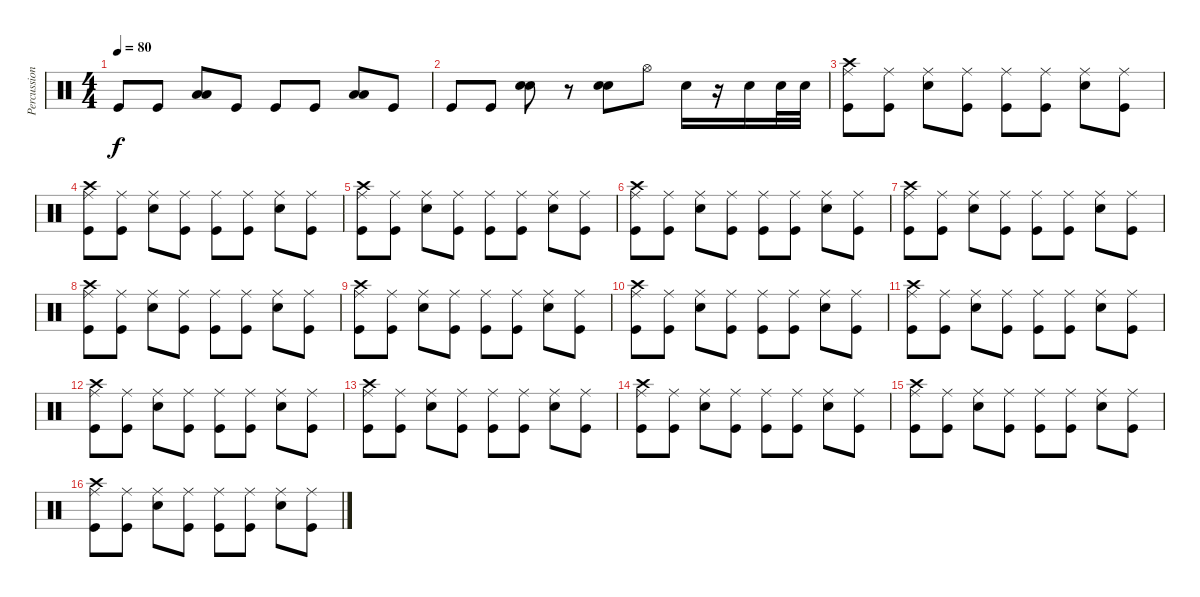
\track ("Percussions" "Percussion") {instrument percussion}
\staff {score}
\articulation defaults
\ts (4 4)
\tempo 80
\clef neutral
\ks c "Kick (hit)".8{dy f} "Kick (hit)".8
("Low Tom (hit)" "Low Floor Tom (hit)").8 "Kick (hit)".8 "Kick (hit)".8 "Kick (hit)".8 ("Low Tom (hit)" "Low Floor Tom (hit)").8 "Kick (hit)".8 |
"Kick (hit)".8 "Kick (hit)".8 ("Electric Snare (hit)" "Snare (hit) 2").8{bu 120} r.8 ("Electric Snare (hit)" "Snare (hit) 2").8{bu 120} "Hi-Hat (open)".8 "Electric Snare (hit)".16 r.16 "Electric Snare (hit)".16 "Electric Snare (hit)".32 "Electric Snare (hit)".32 |
("Ride (middle)" "Crash high (hit)" "Kick (hit)").8 ("Ride (middle)" "Kick (hit)").8 ("Ride (middle)" "Electric Snare (hit)").8 ("Ride (middle)" "Kick (hit)").8 ("Ride (middle)" "Kick (hit)").8 ("Ride (middle)" "Kick (hit)").8 ("Ride (middle)" "Electric Snare (hit)").8 ("Ride (middle)" "Kick (hit)").8 |
("Ride (middle)" "Crash high (hit)" "Kick (hit)").8 ("Ride (middle)" "Kick (hit)").8 ("Ride (middle)" "Electric Snare (hit)").8 ("Ride (middle)" "Kick (hit)").8 ("Ride (middle)" "Kick (hit)").8 ("Ride (middle)" "Kick (hit)").8 ("Ride (middle)" "Electric Snare (hit)").8 ("Ride (middle)" "Kick (hit)").8 |
("Ride (middle)" "Crash high (hit)" "Kick (hit)").8 ("Ride (middle)" "Kick (hit)").8 ("Ride (middle)" "Electric Snare (hit)").8 ("Ride (middle)" "Kick (hit)").8 ("Ride (middle)" "Kick (hit)").8 ("Ride (middle)" "Kick (hit)").8 ("Ride (middle)" "Electric Snare (hit)").8 ("Ride (middle)" "Kick (hit)").8 |
("Ride (middle)" "Crash high (hit)" "Kick (hit)").8 ("Ride (middle)" "Kick (hit)").8 ("Ride (middle)" "Electric Snare (hit)").8 ("Ride (middle)" "Kick (hit)").8 ("Ride (middle)" "Kick (hit)").8 ("Ride (middle)" "Kick (hit)").8 ("Ride (middle)" "Electric Snare (hit)").8 ("Ride (middle)" "Kick (hit)").8 |
("Ride (middle)" "Crash high (hit)" "Kick (hit)").8 ("Ride (middle)" "Kick (hit)").8 ("Ride (middle)" "Electric Snare (hit)").8 ("Ride (middle)" "Kick (hit)").8 ("Ride (middle)" "Kick (hit)").8 ("Ride (middle)" "Kick (hit)").8 ("Ride (middle)" "Electric Snare (hit)").8 ("Ride (middle)" "Kick (hit)").8 |
("Ride (middle)" "Crash high (hit)" "Kick (hit)").8 ("Ride (middle)" "Kick (hit)").8 ("Ride (middle)" "Electric Snare (hit)").8 ("Ride (middle)" "Kick (hit)").8 ("Ride (middle)" "Kick (hit)").8 ("Ride (middle)" "Kick (hit)").8 ("Ride (middle)" "Electric Snare (hit)").8 ("Ride (middle)" "Kick (hit)").8 |
("Ride (middle)" "Crash high (hit)" "Kick (hit)").8 ("Ride (middle)" "Kick (hit)").8 ("Ride (middle)" "Electric Snare (hit)").8 ("Ride (middle)" "Kick (hit)").8 ("Ride (middle)" "Kick (hit)").8 ("Ride (middle)" "Kick (hit)").8 ("Ride (middle)" "Electric Snare (hit)").8 ("Ride (middle)" "Kick (hit)").8 |
("Ride (middle)" "Crash high (hit)" "Kick (hit)").8 ("Ride (middle)" "Kick (hit)").8 ("Ride (middle)" "Electric Snare (hit)").8 ("Ride (middle)" "Kick (hit)").8 ("Ride (middle)" "Kick (hit)").8 ("Ride (middle)" "Kick (hit)").8 ("Ride (middle)" "Electric Snare (hit)").8 ("Ride (middle)" "Kick (hit)").8 |
("Ride (middle)" "Crash high (hit)" "Kick (hit)").8 ("Ride (middle)" "Kick (hit)").8 ("Ride (middle)" "Electric Snare (hit)").8 ("Ride (middle)" "Kick (hit)").8 ("Ride (middle)" "Kick (hit)").8 ("Ride (middle)" "Kick (hit)").8 ("Ride (middle)" "Electric Snare (hit)").8 ("Ride (middle)" "Kick (hit)").8 |
("Ride (middle)" "Crash high (hit)" "Kick (hit)").8 ("Ride (middle)" "Kick (hit)").8 ("Ride (middle)" "Electric Snare (hit)").8 ("Ride (middle)" "Kick (hit)").8 ("Ride (middle)" "Kick (hit)").8 ("Ride (middle)" "Kick (hit)").8 ("Ride (middle)" "Electric Snare (hit)").8 ("Ride (middle)" "Kick (hit)").8 |
("Ride (middle)" "Crash high (hit)" "Kick (hit)").8 ("Ride (middle)" "Kick (hit)").8 ("Ride (middle)" "Electric Snare (hit)").8 ("Ride (middle)" "Kick (hit)").8 ("Ride (middle)" "Kick (hit)").8 ("Ride (middle)" "Kick (hit)").8 ("Ride (middle)" "Electric Snare (hit)").8 ("Ride (middle)" "Kick (hit)").8 |
("Ride (middle)" "Crash high (hit)" "Kick (hit)").8 ("Ride (middle)" "Kick (hit)").8 ("Ride (middle)" "Electric Snare (hit)").8 ("Ride (middle)" "Kick (hit)").8 ("Ride (middle)" "Kick (hit)").8 ("Ride (middle)" "Kick (hit)").8 ("Ride (middle)" "Electric Snare (hit)").8 ("Ride (middle)" "Kick (hit)").8 |
("Ride (middle)" "Crash high (hit)" "Kick (hit)").8 ("Ride (middle)" "Kick (hit)").8 ("Ride (middle)" "Electric Snare (hit)").8 ("Ride (middle)" "Kick (hit)").8 ("Ride (middle)" "Kick (hit)").8 ("Ride (middle)" "Kick (hit)").8 ("Ride (middle)" "Electric Snare (hit)").8 ("Ride (middle)" "Kick (hit)").8 |
("Ride (middle)" "Crash high (hit)" "Kick (hit)").8 ("Ride (middle)" "Kick (hit)").8 ("Ride (middle)" "Electric Snare (hit)").8 ("Ride (middle)" "Kick (hit)").8 ("Ride (middle)" "Kick (hit)").8 ("Ride (middle)" "Kick (hit)").8 ("Ride (middle)" "Electric Snare (hit)").8 ("Ride (middle)" "Kick (hit)").8
